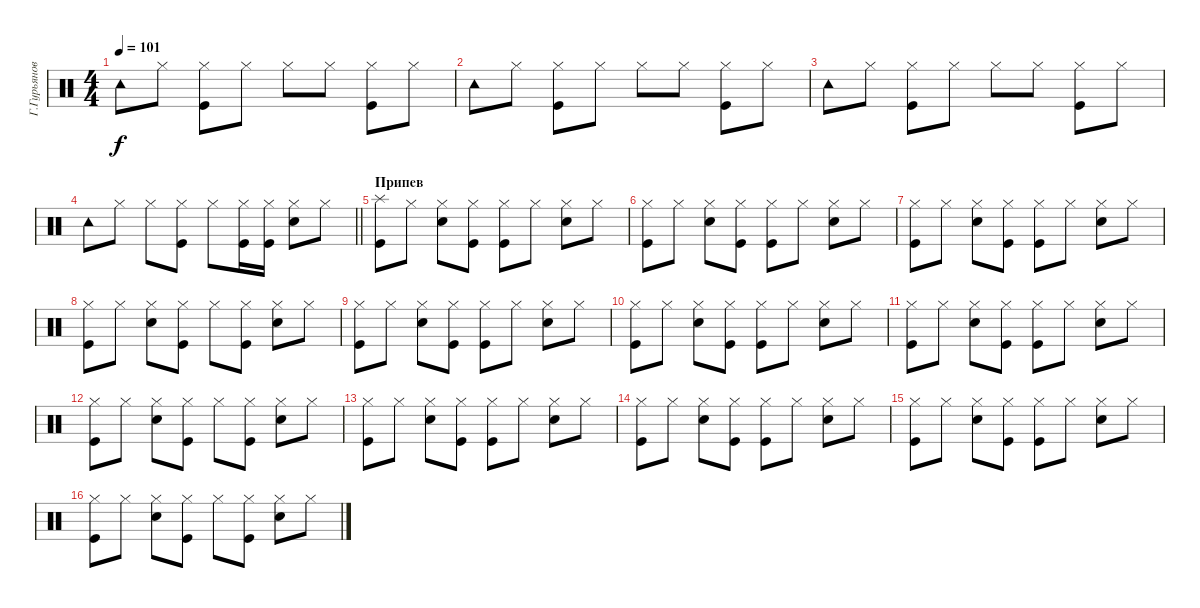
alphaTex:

\track ("Г.Гурьянов" "Г.Гурьянов") {instrument percussion}
\staff {score}
\articulation defaults
\ts (4 4)
\tempo 101
\clef neutral
\ks c "Tambourine (hit)".8{dy f} "Hi-Hat (closed)".8
("Hi-Hat (closed)" "Kick (hit)").8 "Hi-Hat (closed)".8 "Hi-Hat (closed)".8 "Hi-Hat (closed)".8 ("Hi-Hat (closed)" "Kick (hit)").8 "Hi-Hat (closed)".8 |
"Tambourine (hit)".8 "Hi-Hat (closed)".8 ("Hi-Hat (closed)" "Kick (hit)").8 "Hi-Hat (closed)".8 "Hi-Hat (closed)".8 "Hi-Hat (closed)".8 ("Hi-Hat (closed)" "Kick (hit)").8 "Hi-Hat (closed)".8 |
"Tambourine (hit)".8 "Hi-Hat (closed)".8 ("Hi-Hat (closed)" "Kick (hit)").8 "Hi-Hat (closed)".8 "Hi-Hat (closed)".8 "Hi-Hat (closed)".8 ("Hi-Hat (closed)" "Kick (hit)").8 "Hi-Hat (closed)".8 |
\barLineRight lightlight "Tambourine (hit)".8 "Hi-Hat (closed)".8 "Hi-Hat (closed)".8
("Hi-Hat (closed)" "Kick (hit)").8 "Hi-Hat (closed)".8 ("Hi-Hat (closed)" "Kick (hit)").16 ("Hi-Hat (closed)" "Kick (hit)").16 ("Hi-Hat (closed)" "Snare (hit) 2").8 "Hi-Hat (closed)".8 |
\section ("" "Припев")
("Splash (hit)" "Kick (hit)").8 "Hi-Hat (closed)".8 ("Hi-Hat (closed)" "Snare (hit) 2").8 ("Hi-Hat (closed)" "Kick (hit)").8 ("Hi-Hat (closed)" "Kick (hit)").8 "Hi-Hat (closed)".8 ("Hi-Hat (closed)" "Snare (hit) 2").8 "Hi-Hat (closed)".8 |
("Hi-Hat (closed)" "Kick (hit)").8 "Hi-Hat (closed)".8 ("Hi-Hat (closed)" "Snare (hit) 2").8 ("Hi-Hat (closed)" "Kick (hit)").8 ("Hi-Hat (closed)" "Kick (hit)").8 "Hi-Hat (closed)".8 ("Hi-Hat (closed)" "Snare (hit) 2").8 "Hi-Hat (closed)".8 |
("Hi-Hat (closed)" "Kick (hit)").8 "Hi-Hat (closed)".8 ("Hi-Hat (closed)" "Snare (hit) 2").8 ("Hi-Hat (closed)" "Kick (hit)").8 ("Hi-Hat (closed)" "Kick (hit)").8 "Hi-Hat (closed)".8 ("Hi-Hat (closed)" "Snare (hit) 2").8 "Hi-Hat (closed)".8 |
("Hi-Hat (closed)" "Kick (hit)").8 "Hi-Hat (closed)".8 ("Hi-Hat (closed)" "Snare (hit) 2").8 ("Hi-Hat (closed)" "Kick (hit)").8 "Hi-Hat (closed)".8 ("Hi-Hat (closed)" "Kick (hit)").8 ("Hi-Hat (closed)" "Snare (hit) 2").8 "Hi-Hat (closed)".8 |
("Hi-Hat (closed)" "Kick (hit)").8 "Hi-Hat (closed)".8 ("Hi-Hat (closed)" "Snare (hit) 2").8 ("Hi-Hat (closed)" "Kick (hit)").8 ("Hi-Hat (closed)" "Kick (hit)").8 "Hi-Hat (closed)".8 ("Hi-Hat (closed)" "Snare (hit) 2").8 "Hi-Hat (closed)".8 |
("Hi-Hat (closed)" "Kick (hit)").8 "Hi-Hat (closed)".8 ("Hi-Hat (closed)" "Snare (hit) 2").8 ("Hi-Hat (closed)" "Kick (hit)").8 ("Hi-Hat (closed)" "Kick (hit)").8 "Hi-Hat (closed)".8 ("Hi-Hat (closed)" "Snare (hit) 2").8 "Hi-Hat (closed)".8 |
("Hi-Hat (closed)" "Kick (hit)").8 "Hi-Hat (closed)".8 ("Hi-Hat (closed)" "Snare (hit) 2").8 ("Hi-Hat (closed)" "Kick (hit)").8 ("Hi-Hat (closed)" "Kick (hit)").8 "Hi-Hat (closed)".8 ("Hi-Hat (closed)" "Snare (hit) 2").8 "Hi-Hat (closed)".8 |
("Hi-Hat (closed)" "Kick (hit)").8 "Hi-Hat (closed)".8 ("Hi-Hat (closed)" "Snare (hit) 2").8 ("Hi-Hat (closed)" "Kick (hit)").8 "Hi-Hat (closed)".8 ("Hi-Hat (closed)" "Kick (hit)").8 ("Hi-Hat (closed)" "Snare (hit) 2").8 "Hi-Hat (closed)".8 |
("Hi-Hat (closed)" "Kick (hit)").8 "Hi-Hat (closed)".8 ("Hi-Hat (closed)" "Snare (hit) 2").8 ("Hi-Hat (closed)" "Kick (hit)").8 ("Hi-Hat (closed)" "Kick (hit)").8 "Hi-Hat (closed)".8 ("Hi-Hat (closed)" "Snare (hit) 2").8 "Hi-Hat (closed)".8 |
("Hi-Hat (closed)" "Kick (hit)").8 "Hi-Hat (closed)".8 ("Hi-Hat (closed)" "Snare (hit) 2").8 ("Hi-Hat (closed)" "Kick (hit)").8 ("Hi-Hat (closed)" "Kick (hit)").8 "Hi-Hat (closed)".8 ("Hi-Hat (closed)" "Snare (hit) 2").8 "Hi-Hat (closed)".8 |
("Hi-Hat (closed)" "Kick (hit)").8 "Hi-Hat (closed)".8 ("Hi-Hat (closed)" "Snare (hit) 2").8 ("Hi-Hat (closed)" "Kick (hit)").8 ("Hi-Hat (closed)" "Kick (hit)").8 "Hi-Hat (closed)".8 ("Hi-Hat (closed)" "Snare (hit) 2").8 "Hi-Hat (closed)".8 |
("Hi-Hat (closed)" "Kick (hit)").8 "Hi-Hat (closed)".8 ("Hi-Hat (closed)" "Snare (hit) 2").8 ("Hi-Hat (closed)" "Kick (hit)").8 "Hi-Hat (closed)".8 ("Hi-Hat (closed)" "Kick (hit)").8 ("Hi-Hat (closed)" "Snare (hit) 2").8 "Hi-Hat (closed)".8
